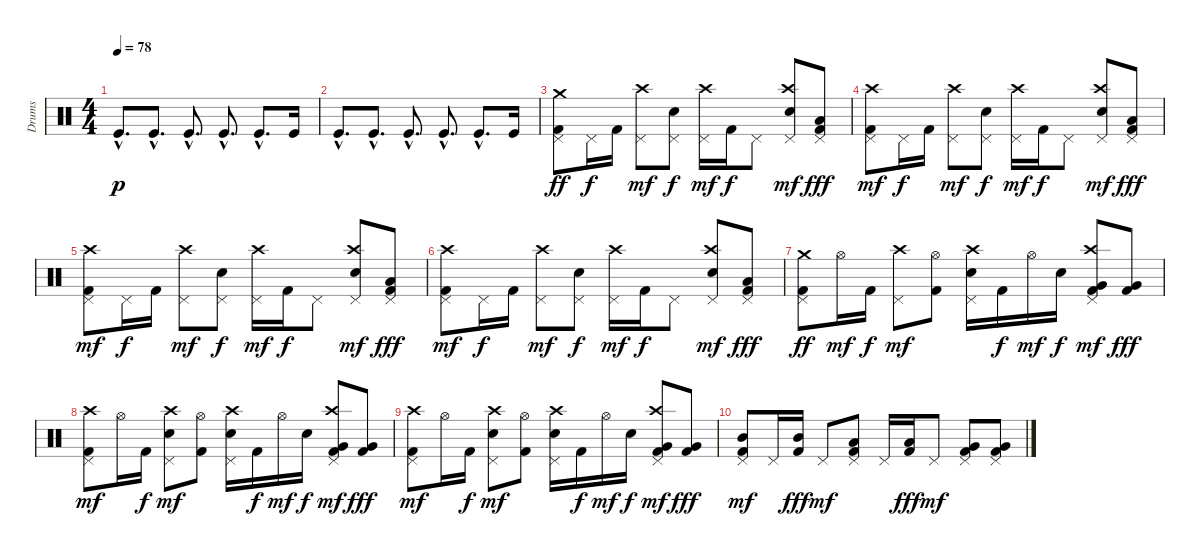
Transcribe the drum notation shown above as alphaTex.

\track ("Drums" "Drums") {instrument percussion}
\staff {score}
\articulation defaults
\ts (4 4)
\tempo 78
\clef neutral
\ks c "Kick (hit)"{hac}.8{d dy p} "Kick (hit)"{hac}.8{d} "Kick (hit)"{hac}.8{d} "Kick (hit)"{hac}.8{d} "Kick (hit)"{hac}.8{d} "Kick (hit)".16
|
"Kick (hit)"{hac}.8{d} "Kick (hit)"{hac}.8{d} "Kick (hit)"{hac}.8{d} "Kick (hit)"{hac}.8{d} "Kick (hit)"{hac}.8{d} "Kick (hit)".16 |
("Kick (hit) 2" "Pedal Hi-Hat (hit)" "Crash medium (hit)").8{dy ff} "Pedal Hi-Hat (hit)".16{dy f} "Kick (hit) 2".16 ("Pedal Hi-Hat (hit)" "Crash high (hit)").8{dy mf} ("Electric Snare (hit)" "Pedal Hi-Hat (hit)").8{dy f} ("Pedal Hi-Hat (hit)" "Crash high (hit)").16{dy mf} "Kick (hit) 2".16{dy f} "Pedal Hi-Hat (hit)".8 ("Electric Snare (hit)" "Pedal Hi-Hat (hit)" "Crash high (hit)").8{dy mf} ("Kick (hit) 2" "Low Floor Tom (hit)" "Pedal Hi-Hat (hit)").8{dy fff} |
("Kick (hit) 2" "Pedal Hi-Hat (hit)" "Crash high (hit)").8{dy mf} "Pedal Hi-Hat (hit)".16{dy f} "Kick (hit) 2".16 ("Pedal Hi-Hat (hit)" "Crash high (hit)").8{dy mf} ("Electric Snare (hit)" "Pedal Hi-Hat (hit)").8{dy f} ("Pedal Hi-Hat (hit)" "Crash high (hit)").16{dy mf} "Kick (hit) 2".16{dy f} "Pedal Hi-Hat (hit)".8 ("Electric Snare (hit)" "Pedal Hi-Hat (hit)" "Crash high (hit)").8{dy mf} ("Kick (hit) 2" "Low Floor Tom (hit)" "Pedal Hi-Hat (hit)").8{dy fff} |
("Kick (hit) 2" "Pedal Hi-Hat (hit)" "Crash high (hit)").8{dy mf} "Pedal Hi-Hat (hit)".16{dy f} "Kick (hit) 2".16 ("Pedal Hi-Hat (hit)" "Crash high (hit)").8{dy mf} ("Electric Snare (hit)" "Pedal Hi-Hat (hit)").8{dy f} ("Pedal Hi-Hat (hit)" "Crash high (hit)").16{dy mf} "Kick (hit) 2".16{dy f} "Pedal Hi-Hat (hit)".8 ("Electric Snare (hit)" "Pedal Hi-Hat (hit)" "Crash high (hit)").8{dy mf} ("Kick (hit) 2" "Low Floor Tom (hit)" "Pedal Hi-Hat (hit)").8{dy fff} |
("Kick (hit) 2" "Pedal Hi-Hat (hit)" "Crash high (hit)").8{dy mf} "Pedal Hi-Hat (hit)".16{dy f} "Kick (hit) 2".16 ("Pedal Hi-Hat (hit)" "Crash high (hit)").8{dy mf} ("Electric Snare (hit)" "Pedal Hi-Hat (hit)").8{dy f} ("Pedal Hi-Hat (hit)" "Crash high (hit)").16{dy mf} "Kick (hit) 2".16{dy f} "Pedal Hi-Hat (hit)".8 ("Electric Snare (hit)" "Pedal Hi-Hat (hit)" "Crash high (hit)").8{dy mf} ("Kick (hit) 2" "Low Floor Tom (hit)" "Pedal Hi-Hat (hit)").8{dy fff} |
("Kick (hit) 2" "Pedal Hi-Hat (hit)" "Crash medium (hit)").8{dy ff} "Hi-Hat (open)".16{dy mf} "Kick (hit) 2".16{dy f} ("Pedal Hi-Hat (hit)" "Crash high (hit)").8{dy mf} ("Kick (hit) 2" "Hi-Hat (open)").8 ("Electric Snare (hit)" "Pedal Hi-Hat (hit)" "Crash high (hit)").16 "Kick (hit) 2".16{dy f} "Hi-Hat (open)".16{dy mf} "Electric Snare (hit)".16{dy f} ("Kick (hit) 2" "Very Low Tom (hit)" "Pedal Hi-Hat (hit)" "Crash high (hit)").8{dy mf} ("Kick (hit) 2" "Very Low Tom (hit)").8{dy fff} |
("Kick (hit) 2" "Pedal Hi-Hat (hit)" "Crash high (hit)").8{dy mf} "Hi-Hat (open)".16 "Kick (hit) 2".16{dy f} ("Electric Snare (hit)" "Pedal Hi-Hat (hit)" "Crash high (hit)").8{dy mf} ("Kick (hit) 2" "Hi-Hat (open)").8 ("Electric Snare (hit)" "Pedal Hi-Hat (hit)" "Crash high (hit)").16 "Kick (hit) 2".16{dy f} "Hi-Hat (open)".16{dy mf} "Electric Snare (hit)".16{dy f} ("Kick (hit) 2" "Very Low Tom (hit)" "Pedal Hi-Hat (hit)" "Crash high (hit)").8{dy mf} ("Kick (hit) 2" "Very Low Tom (hit)").8{dy fff} |
("Kick (hit) 2" "Pedal Hi-Hat (hit)" "Crash high (hit)").8{dy mf} "Hi-Hat (open)".16 "Kick (hit) 2".16{dy f} ("Electric Snare (hit)" "Pedal Hi-Hat (hit)" "Crash high (hit)").8{dy mf} ("Kick (hit) 2" "Hi-Hat (open)").8 ("Electric Snare (hit)" "Pedal Hi-Hat (hit)" "Crash high (hit)").16 "Kick (hit) 2".16{dy f} "Hi-Hat (open)".16{dy mf} "Electric Snare (hit)".16{dy f} ("Kick (hit) 2" "Very Low Tom (hit)" "Pedal Hi-Hat (hit)" "Crash high (hit)").8{dy mf} ("Kick (hit) 2" "Very Low Tom (hit)").8{dy fff} |
("Kick (hit) 2" "Mid Tom (hit)" "Pedal Hi-Hat (hit)").8{dy mf} "Pedal Hi-Hat (hit)".16 ("Kick (hit) 2" "Mid Tom (hit)").16{dy fff} "Pedal Hi-Hat (hit)".8{dy mf} ("Kick (hit) 2" "Low Tom (hit)" "Pedal Hi-Hat (hit)").8 "Pedal Hi-Hat (hit)".16 ("Kick (hit) 2" "Low Tom (hit)").16{dy fff} "Pedal Hi-Hat (hit)".8{dy mf} ("Kick (hit) 2" "Very Low Tom (hit)" "Pedal Hi-Hat (hit)").8 ("Kick (hit) 2" "Very Low Tom (hit)" "Pedal Hi-Hat (hit)").8
